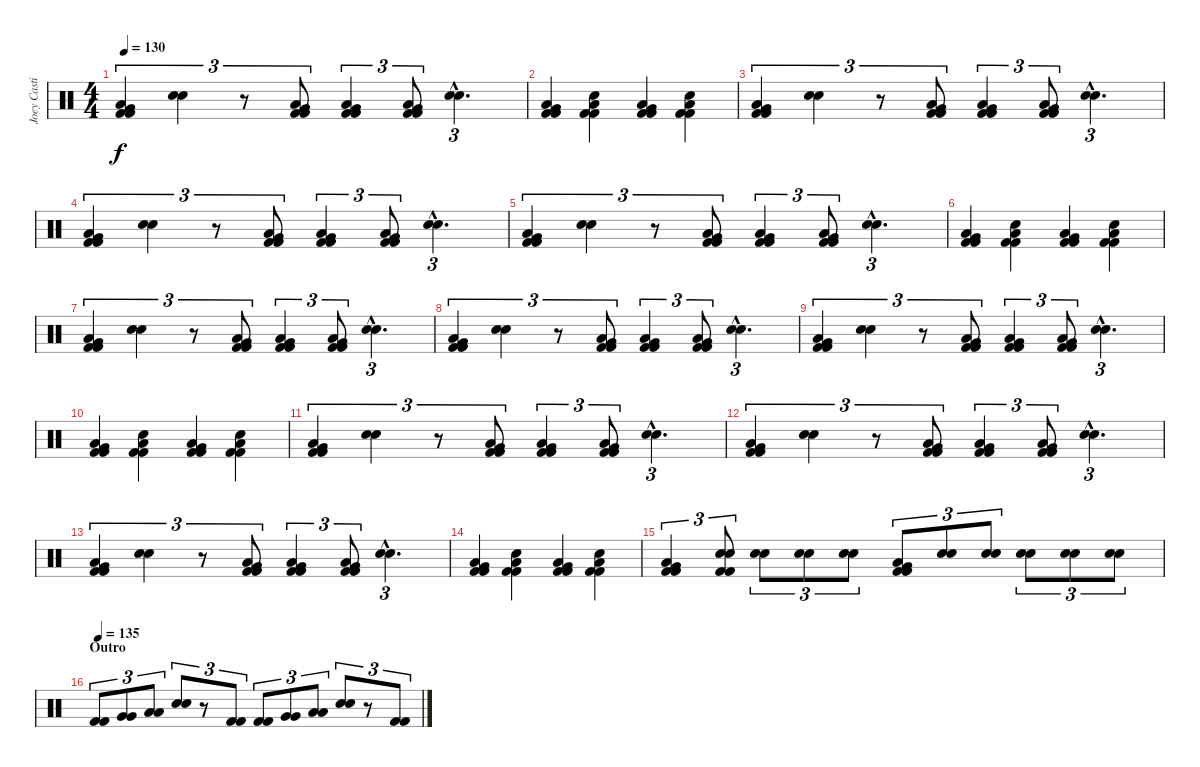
\track ("Joey Castillo" "Joey Casti") {instrument percussion}
\staff {score}
\articulation defaults
\ts (4 4)
\tempo 130
\clef neutral
\ks c
("Low Floor Tom (hit)" "Very Low Tom (hit)" "Kick (hit) 2" "Kick (hit) 2").4{tu (3 2) dy f} ("Electric Snare (hit)" "Electric Snare (hit)").4{tu (3 2)} r.8{tu (3 2)} ("Low Floor Tom (hit)" "Very Low Tom (hit)" "Kick (hit) 2" "Kick (hit) 2").8{tu (3 2)} ("Low Floor Tom (hit)" "Very Low Tom (hit)" "Kick (hit) 2" "Kick (hit) 2").4{tu (3 2)} ("Low Floor Tom (hit)" "Very Low Tom (hit)" "Kick (hit) 2" "Kick (hit) 2").8{tu (3 2)} ("Electric Snare (hit)"{hac} "Electric Snare (hit)"{hac}).4{d tu (3 2)} |
("Low Floor Tom (hit)" "Very Low Tom (hit)" "Kick (hit) 2" "Kick (hit) 2").4 ("Low Floor Tom (hit)" "Electric Snare (hit)" "Kick (hit) 2" "Kick (hit) 2").4 ("Low Floor Tom (hit)" "Very Low Tom (hit)" "Kick (hit) 2" "Kick (hit) 2").4 ("Low Floor Tom (hit)" "Electric Snare (hit)" "Kick (hit) 2" "Kick (hit) 2").4 |
("Low Floor Tom (hit)" "Very Low Tom (hit)" "Kick (hit) 2" "Kick (hit) 2").4{tu (3 2)} ("Electric Snare (hit)" "Electric Snare (hit)").4{tu (3 2)} r.8{tu (3 2)} ("Low Floor Tom (hit)" "Very Low Tom (hit)" "Kick (hit) 2" "Kick (hit) 2").8{tu (3 2)} ("Low Floor Tom (hit)" "Very Low Tom (hit)" "Kick (hit) 2" "Kick (hit) 2").4{tu (3 2)} ("Low Floor Tom (hit)" "Very Low Tom (hit)" "Kick (hit) 2" "Kick (hit) 2").8{tu (3 2)} ("Electric Snare (hit)"{hac} "Electric Snare (hit)"{hac}).4{d tu (3 2)} |
("Low Floor Tom (hit)" "Very Low Tom (hit)" "Kick (hit) 2" "Kick (hit) 2").4{tu (3 2)} ("Electric Snare (hit)" "Electric Snare (hit)").4{tu (3 2)} r.8{tu (3 2)} ("Low Floor Tom (hit)" "Very Low Tom (hit)" "Kick (hit) 2" "Kick (hit) 2").8{tu (3 2)} ("Low Floor Tom (hit)" "Very Low Tom (hit)" "Kick (hit) 2" "Kick (hit) 2").4{tu (3 2)} ("Low Floor Tom (hit)" "Very Low Tom (hit)" "Kick (hit) 2" "Kick (hit) 2").8{tu (3 2)} ("Electric Snare (hit)"{hac} "Electric Snare (hit)"{hac}).4{d tu (3 2)} |
("Low Floor Tom (hit)" "Very Low Tom (hit)" "Kick (hit) 2" "Kick (hit) 2").4{tu (3 2)} ("Electric Snare (hit)" "Electric Snare (hit)").4{tu (3 2)} r.8{tu (3 2)} ("Low Floor Tom (hit)" "Very Low Tom (hit)" "Kick (hit) 2" "Kick (hit) 2").8{tu (3 2)} ("Low Floor Tom (hit)" "Very Low Tom (hit)" "Kick (hit) 2" "Kick (hit) 2").4{tu (3 2)} ("Low Floor Tom (hit)" "Very Low Tom (hit)" "Kick (hit) 2" "Kick (hit) 2").8{tu (3 2)} ("Electric Snare (hit)"{hac} "Electric Snare (hit)"{hac}).4{d tu (3 2)} |
("Low Floor Tom (hit)" "Very Low Tom (hit)" "Kick (hit) 2" "Kick (hit) 2").4 ("Low Floor Tom (hit)" "Electric Snare (hit)" "Kick (hit) 2" "Kick (hit) 2").4 ("Low Floor Tom (hit)" "Very Low Tom (hit)" "Kick (hit) 2" "Kick (hit) 2").4 ("Low Floor Tom (hit)" "Electric Snare (hit)" "Kick (hit) 2" "Kick (hit) 2").4 |
("Low Floor Tom (hit)" "Very Low Tom (hit)" "Kick (hit) 2" "Kick (hit) 2").4{tu (3 2)} ("Electric Snare (hit)" "Electric Snare (hit)").4{tu (3 2)} r.8{tu (3 2)} ("Low Floor Tom (hit)" "Very Low Tom (hit)" "Kick (hit) 2" "Kick (hit) 2").8{tu (3 2)} ("Low Floor Tom (hit)" "Very Low Tom (hit)" "Kick (hit) 2" "Kick (hit) 2").4{tu (3 2)} ("Low Floor Tom (hit)" "Very Low Tom (hit)" "Kick (hit) 2" "Kick (hit) 2").8{tu (3 2)} ("Electric Snare (hit)"{hac} "Electric Snare (hit)"{hac}).4{d tu (3 2)} |
("Low Floor Tom (hit)" "Very Low Tom (hit)" "Kick (hit) 2" "Kick (hit) 2").4{tu (3 2)} ("Electric Snare (hit)" "Electric Snare (hit)").4{tu (3 2)} r.8{tu (3 2)} ("Low Floor Tom (hit)" "Very Low Tom (hit)" "Kick (hit) 2" "Kick (hit) 2").8{tu (3 2)} ("Low Floor Tom (hit)" "Very Low Tom (hit)" "Kick (hit) 2" "Kick (hit) 2").4{tu (3 2)} ("Low Floor Tom (hit)" "Very Low Tom (hit)" "Kick (hit) 2" "Kick (hit) 2").8{tu (3 2)} ("Electric Snare (hit)"{hac} "Electric Snare (hit)"{hac}).4{d tu (3 2)} |
("Low Floor Tom (hit)" "Very Low Tom (hit)" "Kick (hit) 2" "Kick (hit) 2").4{tu (3 2)} ("Electric Snare (hit)" "Electric Snare (hit)").4{tu (3 2)} r.8{tu (3 2)} ("Low Floor Tom (hit)" "Very Low Tom (hit)" "Kick (hit) 2" "Kick (hit) 2").8{tu (3 2)} ("Low Floor Tom (hit)" "Very Low Tom (hit)" "Kick (hit) 2" "Kick (hit) 2").4{tu (3 2)} ("Low Floor Tom (hit)" "Very Low Tom (hit)" "Kick (hit) 2" "Kick (hit) 2").8{tu (3 2)} ("Electric Snare (hit)"{hac} "Electric Snare (hit)"{hac}).4{d tu (3 2)} |
("Low Floor Tom (hit)" "Very Low Tom (hit)" "Kick (hit) 2" "Kick (hit) 2").4 ("Low Floor Tom (hit)" "Electric Snare (hit)" "Kick (hit) 2" "Kick (hit) 2").4 ("Low Floor Tom (hit)" "Very Low Tom (hit)" "Kick (hit) 2" "Kick (hit) 2").4 ("Low Floor Tom (hit)" "Electric Snare (hit)" "Kick (hit) 2" "Kick (hit) 2").4 |
("Low Floor Tom (hit)" "Very Low Tom (hit)" "Kick (hit) 2" "Kick (hit) 2").4{tu (3 2)} ("Electric Snare (hit)" "Electric Snare (hit)").4{tu (3 2)} r.8{tu (3 2)} ("Low Floor Tom (hit)" "Very Low Tom (hit)" "Kick (hit) 2" "Kick (hit) 2").8{tu (3 2)} ("Low Floor Tom (hit)" "Very Low Tom (hit)" "Kick (hit) 2" "Kick (hit) 2").4{tu (3 2)} ("Low Floor Tom (hit)" "Very Low Tom (hit)" "Kick (hit) 2" "Kick (hit) 2").8{tu (3 2)} ("Electric Snare (hit)"{hac} "Electric Snare (hit)"{hac}).4{d tu (3 2)} |
("Low Floor Tom (hit)" "Very Low Tom (hit)" "Kick (hit) 2" "Kick (hit) 2").4{tu (3 2)} ("Electric Snare (hit)" "Electric Snare (hit)").4{tu (3 2)} r.8{tu (3 2)} ("Low Floor Tom (hit)" "Very Low Tom (hit)" "Kick (hit) 2" "Kick (hit) 2").8{tu (3 2)} ("Low Floor Tom (hit)" "Very Low Tom (hit)" "Kick (hit) 2" "Kick (hit) 2").4{tu (3 2)} ("Low Floor Tom (hit)" "Very Low Tom (hit)" "Kick (hit) 2" "Kick (hit) 2").8{tu (3 2)} ("Electric Snare (hit)"{hac} "Electric Snare (hit)"{hac}).4{d tu (3 2)} |
("Low Floor Tom (hit)" "Very Low Tom (hit)" "Kick (hit) 2" "Kick (hit) 2").4{tu (3 2)} ("Electric Snare (hit)" "Electric Snare (hit)").4{tu (3 2)} r.8{tu (3 2)} ("Low Floor Tom (hit)" "Very Low Tom (hit)" "Kick (hit) 2" "Kick (hit) 2").8{tu (3 2)} ("Low Floor Tom (hit)" "Very Low Tom (hit)" "Kick (hit) 2" "Kick (hit) 2").4{tu (3 2)} ("Low Floor Tom (hit)" "Very Low Tom (hit)" "Kick (hit) 2" "Kick (hit) 2").8{tu (3 2)} ("Electric Snare (hit)"{hac} "Electric Snare (hit)"{hac}).4{d tu (3 2)} |
("Low Floor Tom (hit)" "Very Low Tom (hit)" "Kick (hit) 2" "Kick (hit) 2").4 ("Low Floor Tom (hit)" "Electric Snare (hit)" "Kick (hit) 2" "Kick (hit) 2").4 ("Low Floor Tom (hit)" "Very Low Tom (hit)" "Kick (hit) 2" "Kick (hit) 2").4 ("Low Floor Tom (hit)" "Electric Snare (hit)" "Kick (hit) 2" "Kick (hit) 2").4 |
("Low Floor Tom (hit)" "Very Low Tom (hit)" "Kick (hit) 2" "Kick (hit) 2").4{tu (3 2)} ("Electric Snare (hit)" "Electric Snare (hit)" "Kick (hit) 2" "Kick (hit) 2").8{tu (3 2)} ("Electric Snare (hit)" "Electric Snare (hit)").8{tu (3 2)} ("Electric Snare (hit)" "Electric Snare (hit)").8{tu (3 2)} ("Electric Snare (hit)" "Electric Snare (hit)").8{tu (3 2)} ("Low Floor Tom (hit)" "Very Low Tom (hit)" "Kick (hit) 2" "Kick (hit) 2").8{tu (3 2)} ("Electric Snare (hit)" "Electric Snare (hit)").8{tu (3 2)} ("Electric Snare (hit)" "Electric Snare (hit)").8{tu (3 2)} ("Electric Snare (hit)" "Electric Snare (hit)").8{tu (3 2)} ("Electric Snare (hit)" "Electric Snare (hit)").8{tu (3 2)} ("Electric Snare (hit)" "Electric Snare (hit)").8{tu (3 2)} |
\section ("" "Outro")
\tempo 135
("Kick (hit) 2" "Kick (hit) 2").8{tu (3 2)} ("Very Low Tom (hit)" "Very Low Tom (hit)").8{tu (3 2)} ("Low Floor Tom (hit)" "Low Floor Tom (hit)").8{tu (3 2)} ("Electric Snare (hit)" "Electric Snare (hit)").8{tu (3 2)} r.8{tu (3 2)} ("Kick (hit) 2" "Kick (hit) 2").8{tu (3 2)} ("Kick (hit) 2" "Kick (hit) 2").8{tu (3 2)} ("Very Low Tom (hit)" "Very Low Tom (hit)").8{tu (3 2)} ("Low Floor Tom (hit)" "Low Floor Tom (hit)").8{tu (3 2)} ("Electric Snare (hit)" "Electric Snare (hit)").8{tu (3 2)} r.8{tu (3 2)} ("Kick (hit) 2" "Kick (hit) 2").8{tu (3 2)}
